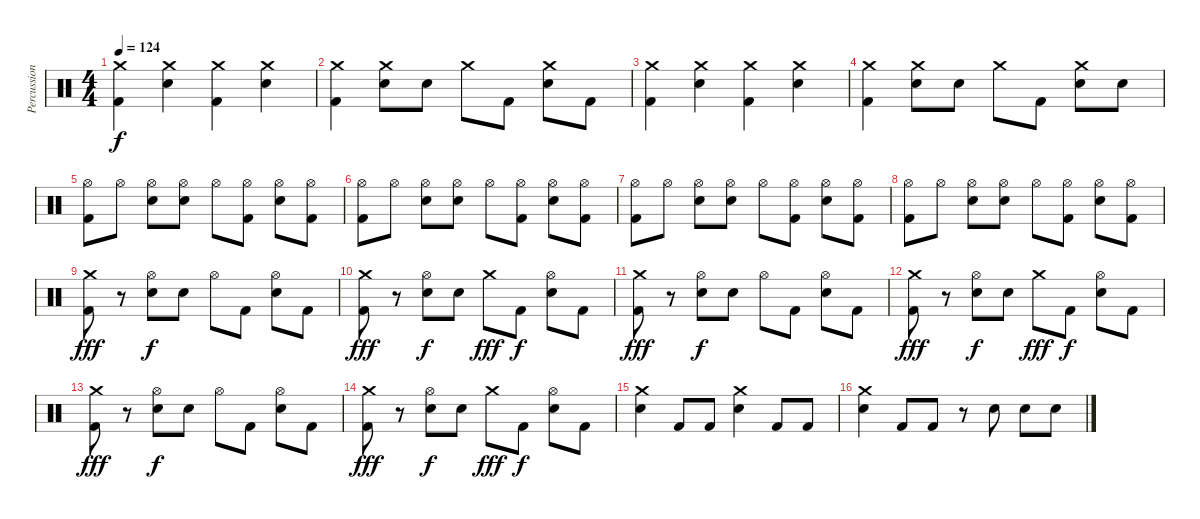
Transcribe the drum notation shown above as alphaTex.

\track ("Percussion" "Percussion") {instrument percussion}
\staff {score}
\articulation defaults
\ts (4 4)
\tempo 124
\clef neutral
\ks c
("Crash medium (hit)" "Kick (hit) 2").4{dy f} ("Crash medium (hit)" "Snare (hit) 2").4 ("Crash medium (hit)" "Kick (hit) 2").4 ("Crash medium (hit)" "Snare (hit) 2").4 |
("Crash medium (hit)" "Kick (hit) 2").4 ("Crash medium (hit)" "Snare (hit) 2").8 "Snare (hit) 2".8 "Crash medium (hit)".8 "Kick (hit) 2".8 ("Crash medium (hit)" "Snare (hit) 2").8 "Kick (hit) 2".8 |
("Crash medium (hit)" "Kick (hit) 2").4 ("Crash medium (hit)" "Snare (hit) 2").4 ("Crash medium (hit)" "Kick (hit) 2").4 ("Crash medium (hit)" "Snare (hit) 2").4 |
("Crash medium (hit)" "Kick (hit) 2").4 ("Crash medium (hit)" "Snare (hit) 2").8 "Snare (hit) 2".8 "Crash medium (hit)".8 "Kick (hit) 2".8 ("Crash medium (hit)" "Snare (hit) 2").8 "Snare (hit) 2".8 |
("Hi-Hat (open)" "Kick (hit) 2").8 "Hi-Hat (open)".8 ("Hi-Hat (open)" "Snare (hit) 2").8 ("Hi-Hat (open)" "Snare (hit) 2").8 "Hi-Hat (open)".8 ("Hi-Hat (open)" "Kick (hit) 2").8 ("Hi-Hat (open)" "Snare (hit) 2").8 ("Hi-Hat (open)" "Kick (hit) 2").8 |
("Hi-Hat (open)" "Kick (hit) 2").8 "Hi-Hat (open)".8 ("Hi-Hat (open)" "Snare (hit) 2").8 ("Hi-Hat (open)" "Snare (hit) 2").8 "Hi-Hat (open)".8 ("Hi-Hat (open)" "Kick (hit) 2").8 ("Hi-Hat (open)" "Snare (hit) 2").8 ("Hi-Hat (open)" "Kick (hit) 2").8 |
("Hi-Hat (open)" "Kick (hit) 2").8 "Hi-Hat (open)".8 ("Hi-Hat (open)" "Snare (hit) 2").8 ("Hi-Hat (open)" "Snare (hit) 2").8 "Hi-Hat (open)".8 ("Hi-Hat (open)" "Kick (hit) 2").8 ("Hi-Hat (open)" "Snare (hit) 2").8 ("Hi-Hat (open)" "Kick (hit) 2").8 |
("Hi-Hat (open)" "Kick (hit) 2").8 "Hi-Hat (open)".8 ("Hi-Hat (open)" "Snare (hit) 2").8 ("Hi-Hat (open)" "Snare (hit) 2").8 "Hi-Hat (open)".8 ("Hi-Hat (open)" "Kick (hit) 2").8 ("Hi-Hat (open)" "Snare (hit) 2").8 ("Hi-Hat (open)" "Kick (hit) 2").8 |
("Crash medium (hit)" "Kick (hit) 2").8{dy fff} r.8 ("Hi-Hat (open)" "Snare (hit) 2").8{dy f} "Snare (hit) 2".8 "Hi-Hat (open)".8 "Kick (hit) 2".8 ("Hi-Hat (open)" "Snare (hit) 2").8 "Kick (hit) 2".8 |
("Crash medium (hit)" "Kick (hit) 2").8{dy fff} r.8 ("Hi-Hat (open)" "Snare (hit) 2").8{dy f} "Snare (hit) 2".8 "Crash medium (hit)".8{dy fff} "Kick (hit) 2".8{dy f} ("Hi-Hat (open)" "Snare (hit) 2").8 "Kick (hit) 2".8 |
("Crash medium (hit)" "Kick (hit) 2").8{dy fff} r.8 ("Hi-Hat (open)" "Snare (hit) 2").8{dy f} "Snare (hit) 2".8 "Hi-Hat (open)".8 "Kick (hit) 2".8 ("Hi-Hat (open)" "Snare (hit) 2").8 "Kick (hit) 2".8 |
("Crash medium (hit)" "Kick (hit) 2").8{dy fff} r.8 ("Hi-Hat (open)" "Snare (hit) 2").8{dy f} "Snare (hit) 2".8 "Crash medium (hit)".8{dy fff} "Kick (hit) 2".8{dy f} ("Hi-Hat (open)" "Snare (hit) 2").8 "Kick (hit) 2".8 |
("Crash medium (hit)" "Kick (hit) 2").8{dy fff} r.8 ("Hi-Hat (open)" "Snare (hit) 2").8{dy f} "Snare (hit) 2".8 "Hi-Hat (open)".8 "Kick (hit) 2".8 ("Hi-Hat (open)" "Snare (hit) 2").8 "Kick (hit) 2".8 |
("Crash medium (hit)" "Kick (hit) 2").8{dy fff} r.8 ("Hi-Hat (open)" "Snare (hit) 2").8{dy f} "Snare (hit) 2".8 "Crash medium (hit)".8{dy fff} "Kick (hit) 2".8{dy f} ("Hi-Hat (open)" "Snare (hit) 2").8 "Kick (hit) 2".8 |
("Crash medium (hit)" "Snare (hit) 2").4 "Kick (hit) 2".8 "Kick (hit) 2".8 ("Crash medium (hit)" "Snare (hit) 2").4 "Kick (hit) 2".8 "Kick (hit) 2".8 |
("Crash medium (hit)" "Snare (hit) 2").4 "Kick (hit) 2".8 "Kick (hit) 2".8 r.8 "Snare (hit) 2".8 "Snare (hit) 2".8 "Snare (hit) 2".8
